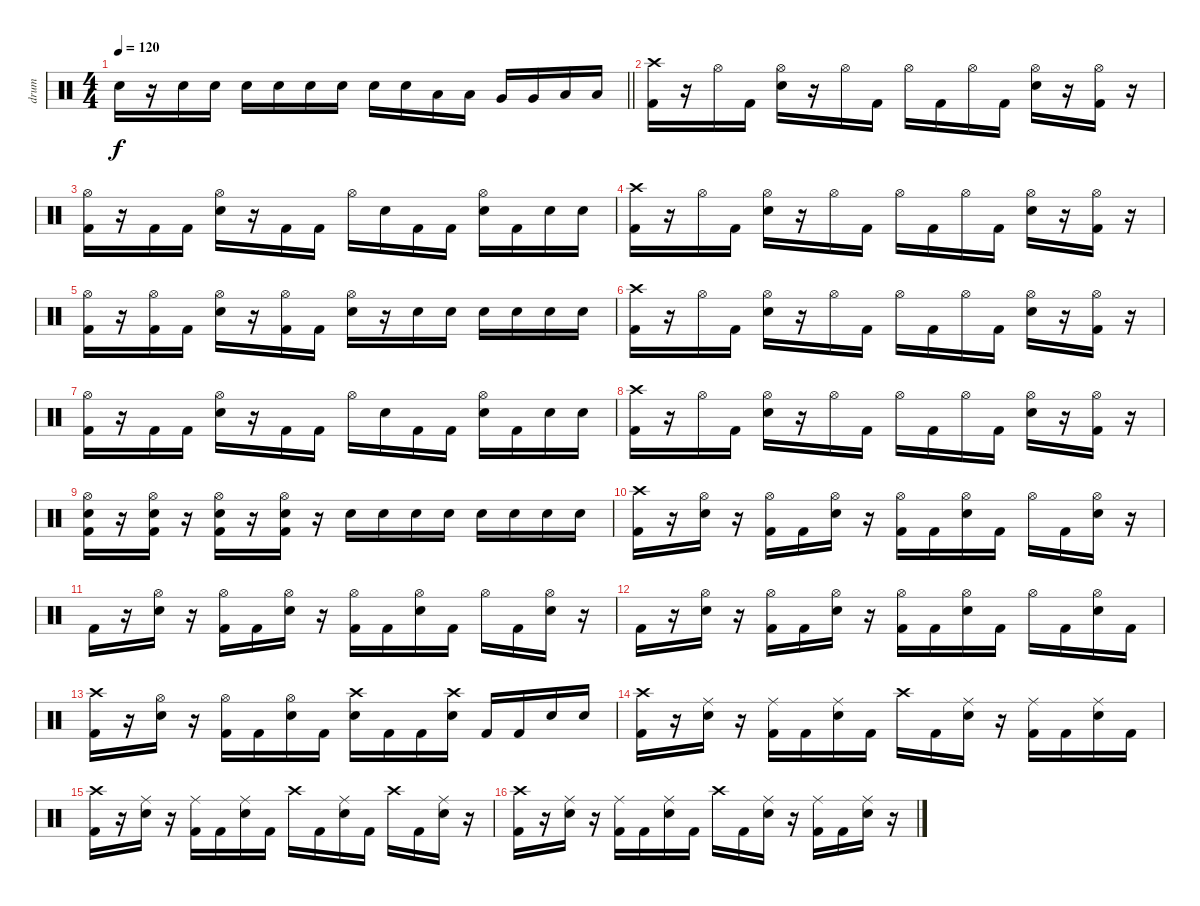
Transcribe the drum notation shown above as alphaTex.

\track ("drum" "drum") {instrument percussion}
\staff {score}
\articulation defaults
\ts (4 4)
\tempo 120
\clef neutral
\barLineRight lightlight
\ks c "Snare (hit) 2".16{dy f}
r.16 "Snare (hit) 2".16 "Snare (hit) 2".16 "Snare (hit) 2".16 "Snare (hit) 2".16 "Snare (hit) 2".16 "Snare (hit) 2".16 "Snare (hit) 2".16 "Snare (hit) 2".16 "Low Tom (hit)".16 "Low Tom (hit)".16 "Very Low Tom (hit)".16 "Very Low Tom (hit)".16 "Low Floor Tom (hit)".16 "Low Floor Tom (hit)".16 |
("Crash high (hit)" "Kick (hit) 2").16 r.16 "Hi-Hat (open)".16 "Kick (hit) 2".16 ("Hi-Hat (open)" "Snare (hit) 2").16 r.16 "Hi-Hat (open)".16 "Kick (hit) 2".16 "Hi-Hat (open)".16 "Kick (hit) 2".16 "Hi-Hat (open)".16 "Kick (hit) 2".16 ("Hi-Hat (open)" "Snare (hit) 2").16 r.16 ("Hi-Hat (open)" "Kick (hit) 2").16 r.16 |
("Hi-Hat (open)" "Kick (hit) 2").16 r.16 "Kick (hit) 2".16 "Kick (hit) 2".16 ("Hi-Hat (open)" "Snare (hit) 2").16 r.16 "Kick (hit) 2".16 "Kick (hit) 2".16 "Hi-Hat (open)".16 "Snare (hit) 2".16 "Kick (hit) 2".16 "Kick (hit) 2".16 ("Hi-Hat (open)" "Snare (hit) 2").16 "Kick (hit) 2".16 "Snare (hit) 2".16 "Snare (hit) 2".16 |
("Crash high (hit)" "Kick (hit) 2").16 r.16 "Hi-Hat (open)".16 "Kick (hit) 2".16 ("Hi-Hat (open)" "Snare (hit) 2").16 r.16 "Hi-Hat (open)".16 "Kick (hit) 2".16 "Hi-Hat (open)".16 "Kick (hit) 2".16 "Hi-Hat (open)".16 "Kick (hit) 2".16 ("Hi-Hat (open)" "Snare (hit) 2").16 r.16 ("Hi-Hat (open)" "Kick (hit) 2").16 r.16 |
("Hi-Hat (open)" "Kick (hit) 2").16 r.16 ("Hi-Hat (open)" "Kick (hit) 2").16 "Kick (hit) 2".16 ("Hi-Hat (open)" "Snare (hit) 2").16 r.16 ("Hi-Hat (open)" "Kick (hit) 2").16 "Kick (hit) 2".16 ("Hi-Hat (open)" "Snare (hit) 2").16 r.16 "Snare (hit) 2".16 "Snare (hit) 2".16 "Snare (hit) 2".16 "Snare (hit) 2".16 "Snare (hit) 2".16 "Snare (hit) 2".16 |
("Crash high (hit)" "Kick (hit) 2").16 r.16 "Hi-Hat (open)".16 "Kick (hit) 2".16 ("Hi-Hat (open)" "Snare (hit) 2").16 r.16 "Hi-Hat (open)".16 "Kick (hit) 2".16 "Hi-Hat (open)".16 "Kick (hit) 2".16 "Hi-Hat (open)".16 "Kick (hit) 2".16 ("Hi-Hat (open)" "Snare (hit) 2").16 r.16 ("Hi-Hat (open)" "Kick (hit) 2").16 r.16 |
("Hi-Hat (open)" "Kick (hit) 2").16 r.16 "Kick (hit) 2".16 "Kick (hit) 2".16 ("Hi-Hat (open)" "Snare (hit) 2").16 r.16 "Kick (hit) 2".16 "Kick (hit) 2".16 "Hi-Hat (open)".16 "Snare (hit) 2".16 "Kick (hit) 2".16 "Kick (hit) 2".16 ("Hi-Hat (open)" "Snare (hit) 2").16 "Kick (hit) 2".16 "Snare (hit) 2".16 "Snare (hit) 2".16 |
("Crash high (hit)" "Kick (hit) 2").16 r.16 "Hi-Hat (open)".16 "Kick (hit) 2".16 ("Hi-Hat (open)" "Snare (hit) 2").16 r.16 "Hi-Hat (open)".16 "Kick (hit) 2".16 "Hi-Hat (open)".16 "Kick (hit) 2".16 "Hi-Hat (open)".16 "Kick (hit) 2".16 ("Hi-Hat (open)" "Snare (hit) 2").16 r.16 ("Hi-Hat (open)" "Kick (hit) 2").16 r.16 |
("Hi-Hat (open)" "Snare (hit) 2" "Kick (hit) 2").16 r.16 ("Hi-Hat (open)" "Snare (hit) 2" "Kick (hit) 2").16 r.16 ("Hi-Hat (open)" "Snare (hit) 2" "Kick (hit) 2").16 r.16 ("Hi-Hat (open)" "Snare (hit) 2" "Kick (hit) 2").16 r.16 "Snare (hit) 2".16 "Snare (hit) 2".16 "Snare (hit) 2".16 "Snare (hit) 2".16 "Snare (hit) 2".16 "Snare (hit) 2".16 "Snare (hit) 2".16 "Snare (hit) 2".16 |
("Crash high (hit)" "Kick (hit) 2").16 r.16 ("Hi-Hat (open)" "Snare (hit) 2").16 r.16 ("Hi-Hat (open)" "Kick (hit) 2").16 "Kick (hit) 2".16 ("Hi-Hat (open)" "Snare (hit) 2").16 r.16 ("Hi-Hat (open)" "Kick (hit) 2").16 "Kick (hit) 2".16 ("Hi-Hat (open)" "Snare (hit) 2").16 "Kick (hit) 2".16 "Hi-Hat (open)".16 "Kick (hit) 2".16 ("Hi-Hat (open)" "Snare (hit) 2").16 r.16 |
"Kick (hit) 2".16 r.16 ("Hi-Hat (open)" "Snare (hit) 2").16 r.16 ("Hi-Hat (open)" "Kick (hit) 2").16 "Kick (hit) 2".16 ("Hi-Hat (open)" "Snare (hit) 2").16 r.16 ("Hi-Hat (open)" "Kick (hit) 2").16 "Kick (hit) 2".16 ("Hi-Hat (open)" "Snare (hit) 2").16 "Kick (hit) 2".16 "Hi-Hat (open)".16 "Kick (hit) 2".16 ("Hi-Hat (open)" "Snare (hit) 2").16 r.16 |
"Kick (hit) 2".16 r.16 ("Hi-Hat (open)" "Snare (hit) 2").16 r.16 ("Hi-Hat (open)" "Kick (hit) 2").16 "Kick (hit) 2".16 ("Hi-Hat (open)" "Snare (hit) 2").16 r.16 ("Hi-Hat (open)" "Kick (hit) 2").16 "Kick (hit) 2".16 ("Hi-Hat (open)" "Snare (hit) 2").16 "Kick (hit) 2".16 "Hi-Hat (open)".16 "Kick (hit) 2".16 ("Hi-Hat (open)" "Snare (hit) 2").16 "Kick (hit) 2".16 |
("Crash high (hit)" "Kick (hit) 2").16 r.16 ("Hi-Hat (open)" "Snare (hit) 2").16 r.16 ("Hi-Hat (open)" "Kick (hit) 2").16 "Kick (hit) 2".16 ("Hi-Hat (open)" "Snare (hit) 2").16 "Kick (hit) 2".16 ("Crash high (hit)" "Snare (hit) 2").16 "Kick (hit) 2".16 "Kick (hit) 2".16 ("Crash high (hit)" "Snare (hit) 2").16 "Kick (hit) 2".16 "Kick (hit) 2".16 "Snare (hit) 2".16 "Snare (hit) 2".16 |
("Crash high (hit)" "Kick (hit) 2").16 r.16 ("Ride (middle)" "Snare (hit) 2").16 r.16 ("Ride (middle)" "Kick (hit) 2").16 "Kick (hit) 2".16 ("Ride (middle)" "Snare (hit) 2").16 "Kick (hit) 2".16 "Crash high (hit)".16 "Kick (hit) 2".16 ("Ride (middle)" "Snare (hit) 2").16 r.16 ("Ride (middle)" "Kick (hit) 2").16 "Kick (hit) 2".16 ("Ride (middle)" "Snare (hit) 2").16 "Kick (hit) 2".16 |
("Crash high (hit)" "Kick (hit) 2").16 r.16 ("Ride (middle)" "Snare (hit) 2").16 r.16 ("Ride (middle)" "Kick (hit) 2").16 "Kick (hit) 2".16 ("Ride (middle)" "Snare (hit) 2").16 "Kick (hit) 2".16 "Crash high (hit)".16 "Kick (hit) 2".16 ("Ride (middle)" "Snare (hit) 2").16 "Kick (hit) 2".16 "Crash high (hit)".16 "Kick (hit) 2".16 ("Ride (middle)" "Snare (hit) 2").16 r.16 |
("Crash high (hit)" "Kick (hit) 2").16 r.16 ("Ride (middle)" "Snare (hit) 2").16 r.16 ("Ride (middle)" "Kick (hit) 2").16 "Kick (hit) 2".16 ("Ride (middle)" "Snare (hit) 2").16 "Kick (hit) 2".16 "Crash high (hit)".16 "Kick (hit) 2".16 ("Ride (middle)" "Snare (hit) 2").16 r.16 ("Ride (middle)" "Kick (hit) 2").16 "Kick (hit) 2".16 ("Ride (middle)" "Snare (hit) 2").16 r.16
